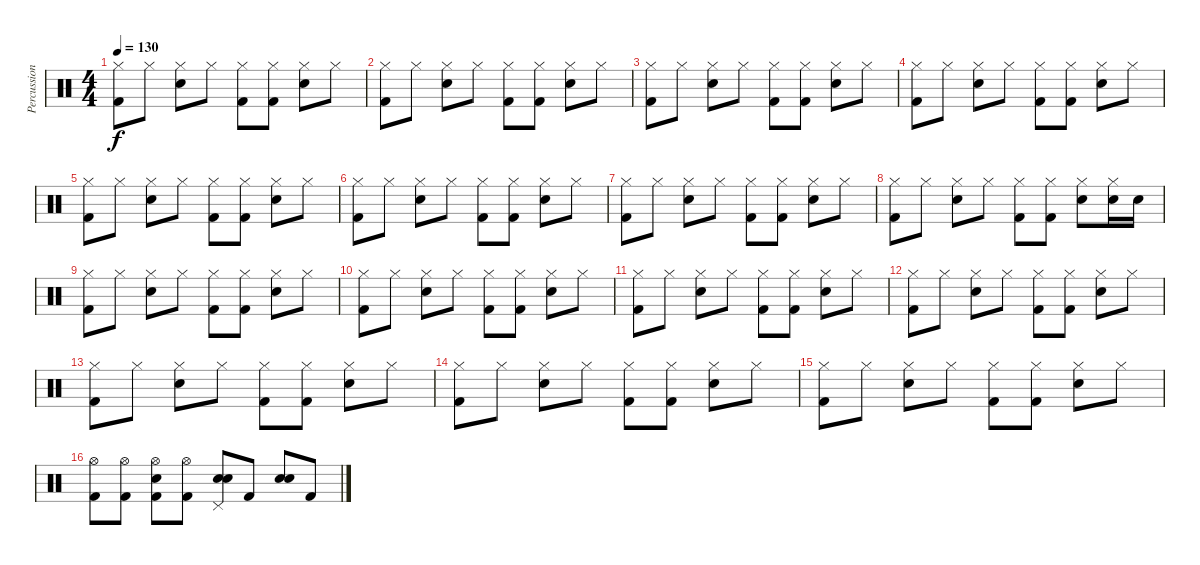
\track ("Percussion" "Percussion") {instrument percussion}
\staff {score}
\articulation defaults
\ts (4 4)
\tempo 130
\clef neutral
\ks c
("Kick (hit) 2" "Hi-Hat (closed)").8{dy f} "Hi-Hat (closed)".8 ("Electric Snare (hit)" "Hi-Hat (closed)").8 "Hi-Hat (closed)".8 ("Kick (hit) 2" "Hi-Hat (closed)").8 ("Kick (hit) 2" "Hi-Hat (closed)").8 ("Electric Snare (hit)" "Hi-Hat (closed)").8 "Hi-Hat (closed)".8 |
("Kick (hit) 2" "Hi-Hat (closed)").8 "Hi-Hat (closed)".8 ("Electric Snare (hit)" "Hi-Hat (closed)").8 "Hi-Hat (closed)".8 ("Kick (hit) 2" "Hi-Hat (closed)").8 ("Kick (hit) 2" "Hi-Hat (closed)").8 ("Electric Snare (hit)" "Hi-Hat (closed)").8 "Hi-Hat (closed)".8 |
("Kick (hit) 2" "Hi-Hat (closed)").8 "Hi-Hat (closed)".8 ("Electric Snare (hit)" "Hi-Hat (closed)").8 "Hi-Hat (closed)".8 ("Kick (hit) 2" "Hi-Hat (closed)").8 ("Kick (hit) 2" "Hi-Hat (closed)").8 ("Electric Snare (hit)" "Hi-Hat (closed)").8 "Hi-Hat (closed)".8 |
("Kick (hit) 2" "Hi-Hat (closed)").8 "Hi-Hat (closed)".8 ("Electric Snare (hit)" "Hi-Hat (closed)").8 "Hi-Hat (closed)".8 ("Kick (hit) 2" "Hi-Hat (closed)").8 ("Kick (hit) 2" "Hi-Hat (closed)").8 ("Electric Snare (hit)" "Hi-Hat (closed)").8 "Hi-Hat (closed)".8 |
("Kick (hit) 2" "Hi-Hat (closed)").8 "Hi-Hat (closed)".8 ("Electric Snare (hit)" "Hi-Hat (closed)").8 "Hi-Hat (closed)".8 ("Kick (hit) 2" "Hi-Hat (closed)").8 ("Kick (hit) 2" "Hi-Hat (closed)").8 ("Electric Snare (hit)" "Hi-Hat (closed)").8 "Hi-Hat (closed)".8 |
("Kick (hit) 2" "Hi-Hat (closed)").8 "Hi-Hat (closed)".8 ("Electric Snare (hit)" "Hi-Hat (closed)").8 "Hi-Hat (closed)".8 ("Kick (hit) 2" "Hi-Hat (closed)").8 ("Kick (hit) 2" "Hi-Hat (closed)").8 ("Electric Snare (hit)" "Hi-Hat (closed)").8 "Hi-Hat (closed)".8 |
("Kick (hit) 2" "Hi-Hat (closed)").8 "Hi-Hat (closed)".8 ("Electric Snare (hit)" "Hi-Hat (closed)").8 "Hi-Hat (closed)".8 ("Kick (hit) 2" "Hi-Hat (closed)").8 ("Kick (hit) 2" "Hi-Hat (closed)").8 ("Electric Snare (hit)" "Hi-Hat (closed)").8 "Hi-Hat (closed)".8 |
("Kick (hit) 2" "Hi-Hat (closed)").8 "Hi-Hat (closed)".8 ("Electric Snare (hit)" "Hi-Hat (closed)").8 "Hi-Hat (closed)".8 ("Kick (hit) 2" "Hi-Hat (closed)").8 ("Kick (hit) 2" "Hi-Hat (closed)").8 ("Electric Snare (hit)" "Hi-Hat (closed)").8 ("Electric Snare (hit)" "Hi-Hat (closed)").16 "Electric Snare (hit)".16 |
("Kick (hit) 2" "Hi-Hat (closed)").8 "Hi-Hat (closed)".8 ("Electric Snare (hit)" "Hi-Hat (closed)").8 "Hi-Hat (closed)".8 ("Kick (hit) 2" "Hi-Hat (closed)").8 ("Kick (hit) 2" "Hi-Hat (closed)").8 ("Electric Snare (hit)" "Hi-Hat (closed)").8 "Hi-Hat (closed)".8 |
("Kick (hit) 2" "Hi-Hat (closed)").8 "Hi-Hat (closed)".8 ("Electric Snare (hit)" "Hi-Hat (closed)").8 "Hi-Hat (closed)".8 ("Kick (hit) 2" "Hi-Hat (closed)").8 ("Kick (hit) 2" "Hi-Hat (closed)").8 ("Electric Snare (hit)" "Hi-Hat (closed)").8 "Hi-Hat (closed)".8 |
("Kick (hit) 2" "Hi-Hat (closed)").8 "Hi-Hat (closed)".8 ("Electric Snare (hit)" "Hi-Hat (closed)").8 "Hi-Hat (closed)".8 ("Kick (hit) 2" "Hi-Hat (closed)").8 ("Kick (hit) 2" "Hi-Hat (closed)").8 ("Electric Snare (hit)" "Hi-Hat (closed)").8 "Hi-Hat (closed)".8 |
("Kick (hit) 2" "Hi-Hat (closed)").8 "Hi-Hat (closed)".8 ("Electric Snare (hit)" "Hi-Hat (closed)").8 "Hi-Hat (closed)".8 ("Kick (hit) 2" "Hi-Hat (closed)").8 ("Kick (hit) 2" "Hi-Hat (closed)").8 ("Electric Snare (hit)" "Hi-Hat (closed)").8 "Hi-Hat (closed)".8 |
("Kick (hit) 2" "Hi-Hat (closed)").8 "Hi-Hat (closed)".8 ("Electric Snare (hit)" "Hi-Hat (closed)").8 "Hi-Hat (closed)".8 ("Kick (hit) 2" "Hi-Hat (closed)").8 ("Kick (hit) 2" "Hi-Hat (closed)").8 ("Electric Snare (hit)" "Hi-Hat (closed)").8 "Hi-Hat (closed)".8 |
("Kick (hit) 2" "Hi-Hat (closed)").8 "Hi-Hat (closed)".8 ("Electric Snare (hit)" "Hi-Hat (closed)").8 "Hi-Hat (closed)".8 ("Kick (hit) 2" "Hi-Hat (closed)").8 ("Kick (hit) 2" "Hi-Hat (closed)").8 ("Electric Snare (hit)" "Hi-Hat (closed)").8 "Hi-Hat (closed)".8 |
("Kick (hit) 2" "Hi-Hat (closed)").8 "Hi-Hat (closed)".8 ("Electric Snare (hit)" "Hi-Hat (closed)").8 "Hi-Hat (closed)".8 ("Kick (hit) 2" "Hi-Hat (closed)").8 ("Kick (hit) 2" "Hi-Hat (closed)").8 ("Electric Snare (hit)" "Hi-Hat (closed)").8 "Hi-Hat (closed)".8 |
("Kick (hit) 2" "Hi-Hat (open)").8 ("Kick (hit) 2" "Hi-Hat (open)").8 ("Kick (hit) 2" "Electric Snare (hit)" "Hi-Hat (open)").8 ("Kick (hit) 2" "Hi-Hat (open)").8 ("Electric Snare (hit)" "Electric Snare (hit)" "Pedal Hi-Hat (hit)").8 "Kick (hit) 2".8 ("Electric Snare (hit)" "Electric Snare (hit)").8 "Kick (hit) 2".8
